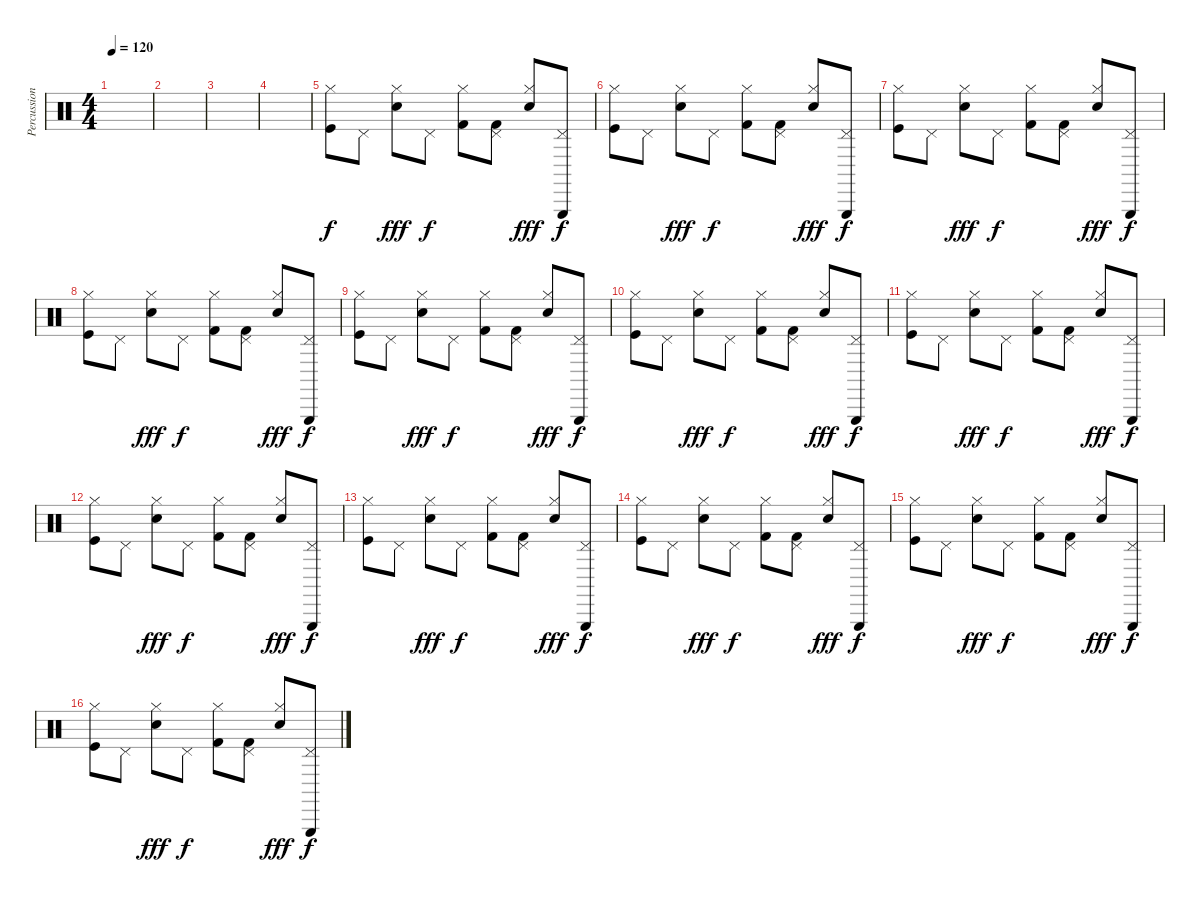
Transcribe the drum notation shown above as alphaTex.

\track ("Percussions" "Percussion") {instrument percussion}
\staff {score}
\articulation defaults
\ts (4 4)
\tempo 120
\clef neutral
\ks c
|
|
|
|
("Hi-Hat (closed)" "Kick (hit)").8 "Pedal Hi-Hat (hit)".8 ("Electric Snare (hit)" "Hi-Hat (closed)").8{dy fff} "Pedal Hi-Hat (hit)".8{dy f} ("Kick (hit) 2" "Hi-Hat (closed)").8 ("Kick (hit) 2" "Pedal Hi-Hat (hit)").8 ("Electric Snare (hit)" "Hi-Hat (closed)").8{dy fff} ("Triangle (hit)" "Pedal Hi-Hat (hit)").8{dy f} |
("Hi-Hat (closed)" "Kick (hit)").8 "Pedal Hi-Hat (hit)".8 ("Electric Snare (hit)" "Hi-Hat (closed)").8{dy fff} "Pedal Hi-Hat (hit)".8{dy f} ("Kick (hit) 2" "Hi-Hat (closed)").8 ("Kick (hit) 2" "Pedal Hi-Hat (hit)").8 ("Electric Snare (hit)" "Hi-Hat (closed)").8{dy fff} ("Triangle (hit)" "Pedal Hi-Hat (hit)").8{dy f} |
("Hi-Hat (closed)" "Kick (hit)").8 "Pedal Hi-Hat (hit)".8 ("Electric Snare (hit)" "Hi-Hat (closed)").8{dy fff} "Pedal Hi-Hat (hit)".8{dy f} ("Kick (hit) 2" "Hi-Hat (closed)").8 ("Kick (hit) 2" "Pedal Hi-Hat (hit)").8 ("Electric Snare (hit)" "Hi-Hat (closed)").8{dy fff} ("Triangle (hit)" "Pedal Hi-Hat (hit)").8{dy f} |
("Hi-Hat (closed)" "Kick (hit)").8 "Pedal Hi-Hat (hit)".8 ("Electric Snare (hit)" "Hi-Hat (closed)").8{dy fff} "Pedal Hi-Hat (hit)".8{dy f} ("Kick (hit) 2" "Hi-Hat (closed)").8 ("Kick (hit) 2" "Pedal Hi-Hat (hit)").8 ("Electric Snare (hit)" "Hi-Hat (closed)").8{dy fff} ("Triangle (hit)" "Pedal Hi-Hat (hit)").8{dy f} |
("Hi-Hat (closed)" "Kick (hit)").8 "Pedal Hi-Hat (hit)".8 ("Electric Snare (hit)" "Hi-Hat (closed)").8{dy fff} "Pedal Hi-Hat (hit)".8{dy f} ("Kick (hit) 2" "Hi-Hat (closed)").8 ("Kick (hit) 2" "Pedal Hi-Hat (hit)").8 ("Electric Snare (hit)" "Hi-Hat (closed)").8{dy fff} ("Triangle (hit)" "Pedal Hi-Hat (hit)").8{dy f} |
("Hi-Hat (closed)" "Kick (hit)").8 "Pedal Hi-Hat (hit)".8 ("Electric Snare (hit)" "Hi-Hat (closed)").8{dy fff} "Pedal Hi-Hat (hit)".8{dy f} ("Kick (hit) 2" "Hi-Hat (closed)").8 ("Kick (hit) 2" "Pedal Hi-Hat (hit)").8 ("Electric Snare (hit)" "Hi-Hat (closed)").8{dy fff} ("Triangle (hit)" "Pedal Hi-Hat (hit)").8{dy f} |
("Hi-Hat (closed)" "Kick (hit)").8 "Pedal Hi-Hat (hit)".8 ("Electric Snare (hit)" "Hi-Hat (closed)").8{dy fff} "Pedal Hi-Hat (hit)".8{dy f} ("Kick (hit) 2" "Hi-Hat (closed)").8 ("Kick (hit) 2" "Pedal Hi-Hat (hit)").8 ("Electric Snare (hit)" "Hi-Hat (closed)").8{dy fff} ("Triangle (hit)" "Pedal Hi-Hat (hit)").8{dy f} |
("Hi-Hat (closed)" "Kick (hit)").8 "Pedal Hi-Hat (hit)".8 ("Electric Snare (hit)" "Hi-Hat (closed)").8{dy fff} "Pedal Hi-Hat (hit)".8{dy f} ("Kick (hit) 2" "Hi-Hat (closed)").8 ("Kick (hit) 2" "Pedal Hi-Hat (hit)").8 ("Electric Snare (hit)" "Hi-Hat (closed)").8{dy fff} ("Triangle (hit)" "Pedal Hi-Hat (hit)").8{dy f} |
("Hi-Hat (closed)" "Kick (hit)").8 "Pedal Hi-Hat (hit)".8 ("Electric Snare (hit)" "Hi-Hat (closed)").8{dy fff} "Pedal Hi-Hat (hit)".8{dy f} ("Kick (hit) 2" "Hi-Hat (closed)").8 ("Kick (hit) 2" "Pedal Hi-Hat (hit)").8 ("Electric Snare (hit)" "Hi-Hat (closed)").8{dy fff} ("Triangle (hit)" "Pedal Hi-Hat (hit)").8{dy f} |
("Hi-Hat (closed)" "Kick (hit)").8 "Pedal Hi-Hat (hit)".8 ("Electric Snare (hit)" "Hi-Hat (closed)").8{dy fff} "Pedal Hi-Hat (hit)".8{dy f} ("Kick (hit) 2" "Hi-Hat (closed)").8 ("Kick (hit) 2" "Pedal Hi-Hat (hit)").8 ("Electric Snare (hit)" "Hi-Hat (closed)").8{dy fff} ("Triangle (hit)" "Pedal Hi-Hat (hit)").8{dy f} |
("Hi-Hat (closed)" "Kick (hit)").8 "Pedal Hi-Hat (hit)".8 ("Electric Snare (hit)" "Hi-Hat (closed)").8{dy fff} "Pedal Hi-Hat (hit)".8{dy f} ("Kick (hit) 2" "Hi-Hat (closed)").8 ("Kick (hit) 2" "Pedal Hi-Hat (hit)").8 ("Electric Snare (hit)" "Hi-Hat (closed)").8{dy fff} ("Triangle (hit)" "Pedal Hi-Hat (hit)").8{dy f} |
("Hi-Hat (closed)" "Kick (hit)").8 "Pedal Hi-Hat (hit)".8 ("Electric Snare (hit)" "Hi-Hat (closed)").8{dy fff} "Pedal Hi-Hat (hit)".8{dy f} ("Kick (hit) 2" "Hi-Hat (closed)").8 ("Kick (hit) 2" "Pedal Hi-Hat (hit)").8 ("Electric Snare (hit)" "Hi-Hat (closed)").8{dy fff} ("Triangle (hit)" "Pedal Hi-Hat (hit)").8{dy f}
